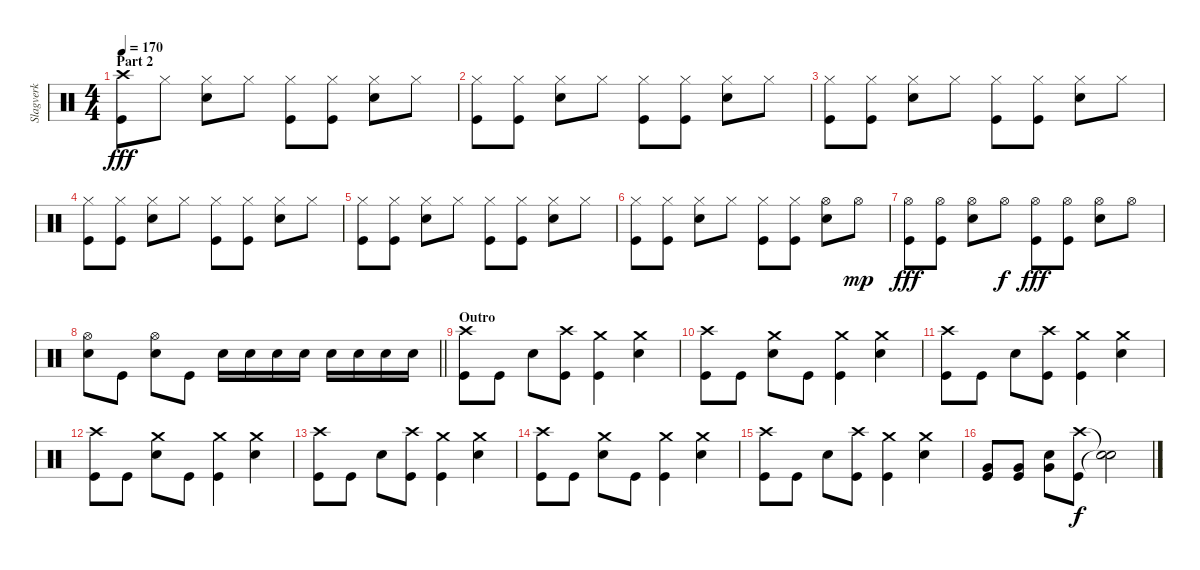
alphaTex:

\track ("Slagverk" "Slagverk") {instrument percussion}
\staff {score}
\articulation defaults
\ts (4 4)
\section ("" "Part 2")
\tempo 170
\clef neutral
\ks c
("Crash high (hit)" "Kick (hit)").8{dy fff} "Hi-Hat (closed)".8 ("Hi-Hat (closed)" "Electric Snare (hit)").8 "Hi-Hat (closed)".8 ("Hi-Hat (closed)" "Kick (hit)").8 ("Hi-Hat (closed)" "Kick (hit)").8 ("Hi-Hat (closed)" "Electric Snare (hit)").8 "Hi-Hat (closed)".8 |
("Hi-Hat (closed)" "Kick (hit)").8 ("Hi-Hat (closed)" "Kick (hit)").8 ("Hi-Hat (closed)" "Electric Snare (hit)").8 "Hi-Hat (closed)".8 ("Hi-Hat (closed)" "Kick (hit)").8 ("Hi-Hat (closed)" "Kick (hit)").8 ("Hi-Hat (closed)" "Electric Snare (hit)").8 "Hi-Hat (closed)".8 |
("Hi-Hat (closed)" "Kick (hit)").8 ("Hi-Hat (closed)" "Kick (hit)").8 ("Hi-Hat (closed)" "Electric Snare (hit)").8 "Hi-Hat (closed)".8 ("Hi-Hat (closed)" "Kick (hit)").8 ("Hi-Hat (closed)" "Kick (hit)").8 ("Hi-Hat (closed)" "Electric Snare (hit)").8 "Hi-Hat (closed)".8 |
("Hi-Hat (closed)" "Kick (hit)").8 ("Hi-Hat (closed)" "Kick (hit)").8 ("Hi-Hat (closed)" "Electric Snare (hit)").8 "Hi-Hat (closed)".8 ("Hi-Hat (closed)" "Kick (hit)").8 ("Hi-Hat (closed)" "Kick (hit)").8 ("Hi-Hat (closed)" "Electric Snare (hit)").8 "Hi-Hat (closed)".8 |
("Hi-Hat (closed)" "Kick (hit)").8 ("Hi-Hat (closed)" "Kick (hit)").8 ("Hi-Hat (closed)" "Electric Snare (hit)").8 "Hi-Hat (closed)".8 ("Hi-Hat (closed)" "Kick (hit)").8 ("Hi-Hat (closed)" "Kick (hit)").8 ("Hi-Hat (closed)" "Electric Snare (hit)").8 "Hi-Hat (closed)".8 |
("Hi-Hat (closed)" "Kick (hit)").8 ("Hi-Hat (closed)" "Kick (hit)").8 ("Hi-Hat (closed)" "Electric Snare (hit)").8 "Hi-Hat (closed)".8 ("Hi-Hat (closed)" "Kick (hit)").8 ("Hi-Hat (closed)" "Kick (hit)").8 ("Hi-Hat (open)" "Electric Snare (hit)").8 "Hi-Hat (open)".8{dy mp} |
("Hi-Hat (open)" "Kick (hit)").8{dy fff} ("Hi-Hat (open)" "Kick (hit)").8 ("Hi-Hat (open)" "Electric Snare (hit)").8 "Hi-Hat (open)".8{dy f} ("Hi-Hat (open)" "Kick (hit)").8{dy fff} ("Hi-Hat (open)" "Kick (hit)").8 ("Hi-Hat (open)" "Electric Snare (hit)").8 "Hi-Hat (open)".8 |
\barLineRight lightlight
("Hi-Hat (open)" "Electric Snare (hit)").8 "Kick (hit)".8 ("Hi-Hat (open)" "Electric Snare (hit)").8 "Kick (hit)".8 "Electric Snare (hit)".16 "Electric Snare (hit)".16 "Electric Snare (hit)".16 "Electric Snare (hit)".16 "Electric Snare (hit)".16 "Electric Snare (hit)".16 "Electric Snare (hit)".16 "Electric Snare (hit)".16 |
\section ("" "Outro")
("Crash high (hit)" "Kick (hit)").8 "Kick (hit)".8 "Electric Snare (hit)".8 ("Crash high (hit)" "Kick (hit)").8 ("Crash medium (hit)" "Kick (hit)").4 ("Crash medium (hit)" "Electric Snare (hit)").4 |
("Crash high (hit)" "Kick (hit)").8 "Kick (hit)".8 ("Crash medium (hit)" "Electric Snare (hit)").8 "Kick (hit)".8 ("Crash medium (hit)" "Kick (hit)").4 ("Crash medium (hit)" "Electric Snare (hit)").4 |
("Crash high (hit)" "Kick (hit)").8 "Kick (hit)".8 "Electric Snare (hit)".8 ("Crash high (hit)" "Kick (hit)").8 ("Crash medium (hit)" "Kick (hit)").4 ("Crash medium (hit)" "Electric Snare (hit)").4 |
("Crash high (hit)" "Kick (hit)").8 "Kick (hit)".8 ("Crash medium (hit)" "Electric Snare (hit)").8 "Kick (hit)".8 ("Crash medium (hit)" "Kick (hit)").4 ("Crash medium (hit)" "Electric Snare (hit)").4 |
("Crash high (hit)" "Kick (hit)").8 "Kick (hit)".8 "Electric Snare (hit)".8 ("Crash high (hit)" "Kick (hit)").8 ("Crash medium (hit)" "Kick (hit)").4 ("Crash medium (hit)" "Electric Snare (hit)").4 |
("Crash high (hit)" "Kick (hit)").8 "Kick (hit)".8 ("Crash medium (hit)" "Electric Snare (hit)").8 "Kick (hit)".8 ("Crash medium (hit)" "Kick (hit)").4 ("Crash medium (hit)" "Electric Snare (hit)").4 |
("Crash high (hit)" "Kick (hit)").8 "Kick (hit)".8 "Electric Snare (hit)".8 ("Crash high (hit)" "Kick (hit)").8 ("Crash medium (hit)" "Kick (hit)").4 ("Crash medium (hit)" "Electric Snare (hit)").4 |
("Very Low Tom (hit)" "Kick (hit)").8 ("Very Low Tom (hit)" "Kick (hit)").8 ("Very Low Tom (hit)" "Electric Snare (hit)").8 ("Crash high (hit)" "Kick (hit)").8{dy f} ("Snare (hit)"{t} "Snare (hit)"{t}).2
